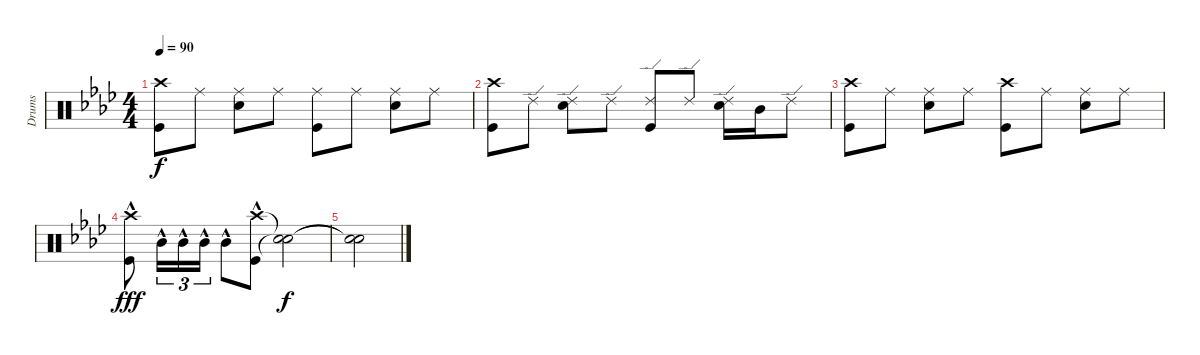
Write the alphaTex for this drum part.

\track ("Drums" "Drums") {instrument percussion}
\staff {score}
\articulation defaults
\ts (4 4)
\tempo 90
\clef neutral
\ks ab
("Crash high (hit)" "Kick (hit)").8{dy f} "Ride (middle)".8 ("Ride (middle)" "Snare (hit) 2").8 "Ride (middle)".8 ("Ride (middle)" "Kick (hit)").8 "Ride (middle)".8 ("Ride (middle)" "Snare (hit) 2").8 "Ride (middle)".8 |
("Crash high (hit)" "Kick (hit)").8 "Ride (edge) 2".8 ("Ride (edge) 2" "Snare (hit) 2").8 "Ride (edge) 2".8 ("Ride (edge) 2" "Kick (hit)").8 "Ride (edge) 2".8 ("Ride (edge) 2" "Snare (hit) 2").16 "Mid Tom (hit)".16 "Ride (edge) 2".8 |
("Crash high (hit)" "Kick (hit)").8 "Ride (middle)".8 ("Ride (middle)" "Snare (hit) 2").8 "Ride (middle)".8 ("Crash high (hit)" "Kick (hit)").8 "Ride (middle)".8 ("Ride (middle)" "Snare (hit) 2").8 "Ride (middle)".8 |
("Crash high (hit)"{hac} "Kick (hit)"{hac}).8{dy fff} "Mid Tom (hit)"{hac}.16{tu (3 2)} "Mid Tom (hit)"{hac}.16{tu (3 2)} "Mid Tom (hit)"{hac}.16{tu (3 2)} "Mid Tom (hit)"{hac}.8 ("Crash high (hit)"{hac} "Kick (hit)"{hac}).8 ("Snare (hit)"{t} "Snare (hit)"{t}).2{dy f} |
("Snare (hit)"{t} "Snare (hit)"{t}).2
